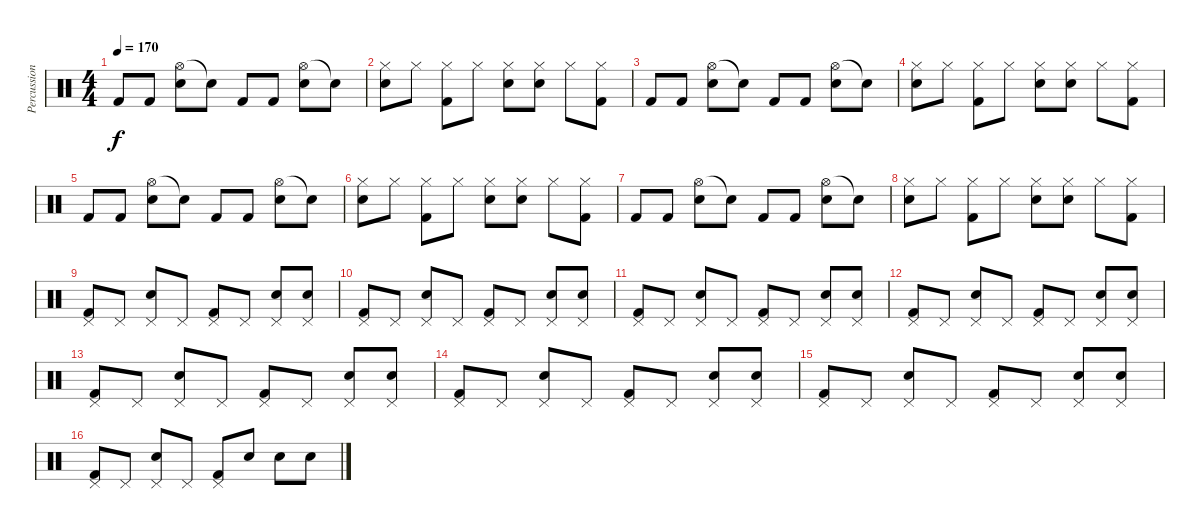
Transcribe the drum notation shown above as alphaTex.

\track ("Percussions" "Percussion") {instrument percussion}
\staff {score}
\articulation defaults
\ts (4 4)
\tempo 170
\clef neutral
\ks c "Kick (hit) 2".8{dy f} "Kick (hit) 2".8
("Hi-Hat (open)" "Snare (hit) 2").8 "Snare (hit)"{t}.8 "Kick (hit) 2".8 "Kick (hit) 2".8 ("Hi-Hat (open)" "Snare (hit) 2").8 "Snare (hit)"{t}.8 |
("Hi-Hat (closed)" "Snare (hit) 2").8 "Hi-Hat (closed)".8 ("Hi-Hat (closed)" "Kick (hit) 2").8 "Hi-Hat (closed)".8 ("Hi-Hat (closed)" "Snare (hit) 2").8 ("Hi-Hat (closed)" "Snare (hit) 2").8 "Hi-Hat (closed)".8 ("Hi-Hat (closed)" "Kick (hit) 2").8 |
"Kick (hit) 2".8 "Kick (hit) 2".8 ("Hi-Hat (open)" "Snare (hit) 2").8 "Snare (hit)"{t}.8 "Kick (hit) 2".8 "Kick (hit) 2".8 ("Hi-Hat (open)" "Snare (hit) 2").8 "Snare (hit)"{t}.8 |
("Hi-Hat (closed)" "Snare (hit) 2").8 "Hi-Hat (closed)".8 ("Hi-Hat (closed)" "Kick (hit) 2").8 "Hi-Hat (closed)".8 ("Hi-Hat (closed)" "Snare (hit) 2").8 ("Hi-Hat (closed)" "Snare (hit) 2").8 "Hi-Hat (closed)".8 ("Hi-Hat (closed)" "Kick (hit) 2").8 |
"Kick (hit) 2".8 "Kick (hit) 2".8 ("Hi-Hat (open)" "Snare (hit) 2").8 "Snare (hit)"{t}.8 "Kick (hit) 2".8 "Kick (hit) 2".8 ("Hi-Hat (open)" "Snare (hit) 2").8 "Snare (hit)"{t}.8 |
("Hi-Hat (closed)" "Snare (hit) 2").8 "Hi-Hat (closed)".8 ("Hi-Hat (closed)" "Kick (hit) 2").8 "Hi-Hat (closed)".8 ("Hi-Hat (closed)" "Snare (hit) 2").8 ("Hi-Hat (closed)" "Snare (hit) 2").8 "Hi-Hat (closed)".8 ("Hi-Hat (closed)" "Kick (hit) 2").8 |
"Kick (hit) 2".8 "Kick (hit) 2".8 ("Hi-Hat (open)" "Snare (hit) 2").8 "Snare (hit)"{t}.8 "Kick (hit) 2".8 "Kick (hit) 2".8 ("Hi-Hat (open)" "Snare (hit) 2").8 "Snare (hit)"{t}.8 |
("Hi-Hat (closed)" "Snare (hit) 2").8 "Hi-Hat (closed)".8 ("Hi-Hat (closed)" "Kick (hit) 2").8 "Hi-Hat (closed)".8 ("Hi-Hat (closed)" "Snare (hit) 2").8 ("Hi-Hat (closed)" "Snare (hit) 2").8 "Hi-Hat (closed)".8 ("Hi-Hat (closed)" "Kick (hit) 2").8 |
("Pedal Hi-Hat (hit)" "Kick (hit) 2").8 "Pedal Hi-Hat (hit)".8 ("Pedal Hi-Hat (hit)" "Snare (hit) 2").8 "Pedal Hi-Hat (hit)".8 ("Pedal Hi-Hat (hit)" "Kick (hit) 2").8 "Pedal Hi-Hat (hit)".8 ("Pedal Hi-Hat (hit)" "Snare (hit) 2").8 ("Pedal Hi-Hat (hit)" "Snare (hit) 2").8 |
("Pedal Hi-Hat (hit)" "Kick (hit) 2").8 "Pedal Hi-Hat (hit)".8 ("Pedal Hi-Hat (hit)" "Snare (hit) 2").8 "Pedal Hi-Hat (hit)".8 ("Pedal Hi-Hat (hit)" "Kick (hit) 2").8 "Pedal Hi-Hat (hit)".8 ("Pedal Hi-Hat (hit)" "Snare (hit) 2").8 ("Pedal Hi-Hat (hit)" "Snare (hit) 2").8 |
("Pedal Hi-Hat (hit)" "Kick (hit) 2").8 "Pedal Hi-Hat (hit)".8 ("Pedal Hi-Hat (hit)" "Snare (hit) 2").8 "Pedal Hi-Hat (hit)".8 ("Pedal Hi-Hat (hit)" "Kick (hit) 2").8 "Pedal Hi-Hat (hit)".8 ("Pedal Hi-Hat (hit)" "Snare (hit) 2").8 ("Pedal Hi-Hat (hit)" "Snare (hit) 2").8 |
("Pedal Hi-Hat (hit)" "Kick (hit) 2").8 "Pedal Hi-Hat (hit)".8 ("Pedal Hi-Hat (hit)" "Snare (hit) 2").8 "Pedal Hi-Hat (hit)".8 ("Pedal Hi-Hat (hit)" "Kick (hit) 2").8 "Pedal Hi-Hat (hit)".8 ("Pedal Hi-Hat (hit)" "Snare (hit) 2").8 ("Pedal Hi-Hat (hit)" "Snare (hit) 2").8 |
("Pedal Hi-Hat (hit)" "Kick (hit) 2").8 "Pedal Hi-Hat (hit)".8 ("Pedal Hi-Hat (hit)" "Snare (hit) 2").8 "Pedal Hi-Hat (hit)".8 ("Pedal Hi-Hat (hit)" "Kick (hit) 2").8 "Pedal Hi-Hat (hit)".8 ("Pedal Hi-Hat (hit)" "Snare (hit) 2").8 ("Pedal Hi-Hat (hit)" "Snare (hit) 2").8 |
("Pedal Hi-Hat (hit)" "Kick (hit) 2").8 "Pedal Hi-Hat (hit)".8 ("Pedal Hi-Hat (hit)" "Snare (hit) 2").8 "Pedal Hi-Hat (hit)".8 ("Pedal Hi-Hat (hit)" "Kick (hit) 2").8 "Pedal Hi-Hat (hit)".8 ("Pedal Hi-Hat (hit)" "Snare (hit) 2").8 ("Pedal Hi-Hat (hit)" "Snare (hit) 2").8 |
("Pedal Hi-Hat (hit)" "Kick (hit) 2").8 "Pedal Hi-Hat (hit)".8 ("Pedal Hi-Hat (hit)" "Snare (hit) 2").8 "Pedal Hi-Hat (hit)".8 ("Pedal Hi-Hat (hit)" "Kick (hit) 2").8 "Pedal Hi-Hat (hit)".8 ("Pedal Hi-Hat (hit)" "Snare (hit) 2").8 ("Pedal Hi-Hat (hit)" "Snare (hit) 2").8 |
("Pedal Hi-Hat (hit)" "Kick (hit) 2").8 "Pedal Hi-Hat (hit)".8 ("Pedal Hi-Hat (hit)" "Snare (hit) 2").8 "Pedal Hi-Hat (hit)".8 ("Pedal Hi-Hat (hit)" "Kick (hit) 2").8 "Snare (hit) 2".8 "Snare (hit) 2".8 "Snare (hit) 2".8
